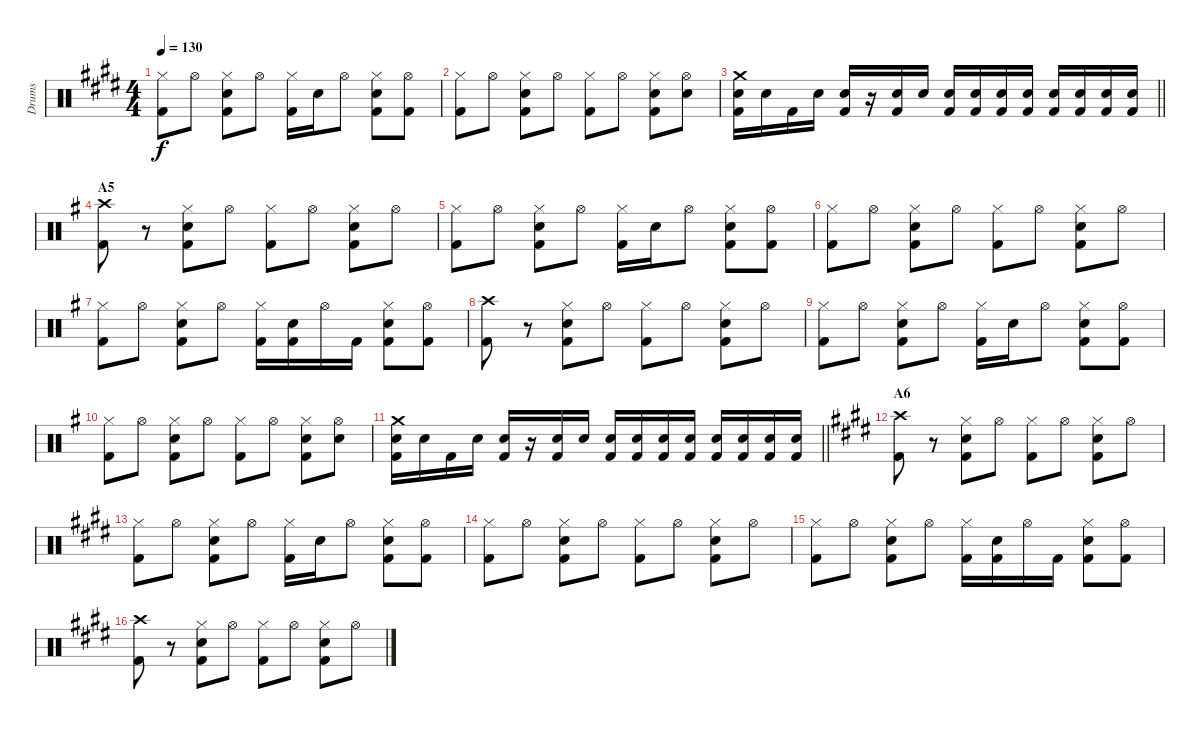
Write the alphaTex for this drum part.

\track ("Drums" "Drums") {instrument percussion}
\staff {score}
\articulation defaults
\ts (4 4)
\tempo 130
\clef neutral
\ks e
("Hi-Hat (closed)" "Kick (hit) 2").8{dy f} "Hi-Hat (open)".8 ("Hi-Hat (closed)" "Electric Snare (hit)" "Kick (hit) 2").8 "Hi-Hat (open)".8 ("Hi-Hat (closed)" "Kick (hit) 2").16 "Electric Snare (hit)".16 "Hi-Hat (open)".8 ("Hi-Hat (closed)" "Electric Snare (hit)" "Kick (hit) 2").8 ("Hi-Hat (open)" "Kick (hit) 2").8 |
("Hi-Hat (closed)" "Kick (hit) 2").8 "Hi-Hat (open)".8 ("Hi-Hat (closed)" "Electric Snare (hit)" "Kick (hit) 2").8 "Hi-Hat (open)".8 ("Hi-Hat (closed)" "Kick (hit) 2").8 "Hi-Hat (open)".8 ("Hi-Hat (closed)" "Electric Snare (hit)" "Kick (hit) 2").8 ("Hi-Hat (open)" "Electric Snare (hit)").8 |
\barLineRight lightlight
("Crash medium (hit)" "Electric Snare (hit)" "Kick (hit) 2").16 "Electric Snare (hit)".16 "Kick (hit) 2".16 "Electric Snare (hit)".16 ("Electric Snare (hit)" "Kick (hit) 2").16 r.16 ("Electric Snare (hit)" "Kick (hit) 2").16 "Electric Snare (hit)".16 ("Electric Snare (hit)" "Kick (hit) 2").16 ("Electric Snare (hit)" "Kick (hit) 2").16 ("Electric Snare (hit)" "Kick (hit) 2").16 ("Electric Snare (hit)" "Kick (hit) 2").16 ("Electric Snare (hit)" "Kick (hit) 2").16 ("Electric Snare (hit)" "Kick (hit) 2").16 ("Electric Snare (hit)" "Kick (hit) 2").16 ("Electric Snare (hit)" "Kick (hit) 2").16 |
\section ("" "A5")
\ks g
("Crash high (hit)" "Kick (hit) 2").8 r.8 ("Hi-Hat (closed)" "Electric Snare (hit)" "Kick (hit) 2").8 "Hi-Hat (open)".8 ("Hi-Hat (closed)" "Kick (hit) 2").8 "Hi-Hat (open)".8 ("Hi-Hat (closed)" "Electric Snare (hit)" "Kick (hit) 2").8 "Hi-Hat (open)".8 |
("Hi-Hat (closed)" "Kick (hit) 2").8 "Hi-Hat (open)".8 ("Hi-Hat (closed)" "Electric Snare (hit)" "Kick (hit) 2").8 "Hi-Hat (open)".8 ("Hi-Hat (closed)" "Kick (hit) 2").16 "Electric Snare (hit)".16 "Hi-Hat (open)".8 ("Hi-Hat (closed)" "Electric Snare (hit)" "Kick (hit) 2").8 ("Hi-Hat (open)" "Kick (hit) 2").8 |
("Hi-Hat (closed)" "Kick (hit) 2").8 "Hi-Hat (open)".8 ("Hi-Hat (closed)" "Electric Snare (hit)" "Kick (hit) 2").8 "Hi-Hat (open)".8 ("Hi-Hat (closed)" "Kick (hit) 2").8 "Hi-Hat (open)".8 ("Hi-Hat (closed)" "Electric Snare (hit)" "Kick (hit) 2").8 "Hi-Hat (open)".8 |
("Hi-Hat (closed)" "Kick (hit) 2").8 "Hi-Hat (open)".8 ("Hi-Hat (closed)" "Electric Snare (hit)" "Kick (hit) 2").8 "Hi-Hat (open)".8 ("Hi-Hat (closed)" "Kick (hit) 2").16 ("Electric Snare (hit)" "Kick (hit) 2").16 "Hi-Hat (open)".16 "Kick (hit) 2".16 ("Hi-Hat (closed)" "Electric Snare (hit)" "Kick (hit) 2").8 ("Hi-Hat (open)" "Kick (hit) 2").8 |
("Crash high (hit)" "Kick (hit) 2").8 r.8 ("Hi-Hat (closed)" "Electric Snare (hit)" "Kick (hit) 2").8 "Hi-Hat (open)".8 ("Hi-Hat (closed)" "Kick (hit) 2").8 "Hi-Hat (open)".8 ("Hi-Hat (closed)" "Electric Snare (hit)" "Kick (hit) 2").8 "Hi-Hat (open)".8 |
("Hi-Hat (closed)" "Kick (hit) 2").8 "Hi-Hat (open)".8 ("Hi-Hat (closed)" "Electric Snare (hit)" "Kick (hit) 2").8 "Hi-Hat (open)".8 ("Hi-Hat (closed)" "Kick (hit) 2").16 "Electric Snare (hit)".16 "Hi-Hat (open)".8 ("Hi-Hat (closed)" "Electric Snare (hit)" "Kick (hit) 2").8 ("Hi-Hat (open)" "Kick (hit) 2").8 |
("Hi-Hat (closed)" "Kick (hit) 2").8 "Hi-Hat (open)".8 ("Hi-Hat (closed)" "Electric Snare (hit)" "Kick (hit) 2").8 "Hi-Hat (open)".8 ("Hi-Hat (closed)" "Kick (hit) 2").8 "Hi-Hat (open)".8 ("Hi-Hat (closed)" "Electric Snare (hit)" "Kick (hit) 2").8 ("Hi-Hat (open)" "Electric Snare (hit)").8 |
\barLineRight lightlight
("Crash medium (hit)" "Electric Snare (hit)" "Kick (hit) 2").16 "Electric Snare (hit)".16 "Kick (hit) 2".16 "Electric Snare (hit)".16 ("Electric Snare (hit)" "Kick (hit) 2").16 r.16 ("Electric Snare (hit)" "Kick (hit) 2").16 "Electric Snare (hit)".16 ("Electric Snare (hit)" "Kick (hit) 2").16 ("Electric Snare (hit)" "Kick (hit) 2").16 ("Electric Snare (hit)" "Kick (hit) 2").16 ("Electric Snare (hit)" "Kick (hit) 2").16 ("Electric Snare (hit)" "Kick (hit) 2").16 ("Electric Snare (hit)" "Kick (hit) 2").16 ("Electric Snare (hit)" "Kick (hit) 2").16 ("Electric Snare (hit)" "Kick (hit) 2").16 |
\section ("" "A6")
\ks e
("Crash high (hit)" "Kick (hit) 2").8 r.8 ("Hi-Hat (closed)" "Electric Snare (hit)" "Kick (hit) 2").8 "Hi-Hat (open)".8 ("Hi-Hat (closed)" "Kick (hit) 2").8 "Hi-Hat (open)".8 ("Hi-Hat (closed)" "Electric Snare (hit)" "Kick (hit) 2").8 "Hi-Hat (open)".8 |
("Hi-Hat (closed)" "Kick (hit) 2").8 "Hi-Hat (open)".8 ("Hi-Hat (closed)" "Electric Snare (hit)" "Kick (hit) 2").8 "Hi-Hat (open)".8 ("Hi-Hat (closed)" "Kick (hit) 2").16 "Electric Snare (hit)".16 "Hi-Hat (open)".8 ("Hi-Hat (closed)" "Electric Snare (hit)" "Kick (hit) 2").8 ("Hi-Hat (open)" "Kick (hit) 2").8 |
("Hi-Hat (closed)" "Kick (hit) 2").8 "Hi-Hat (open)".8 ("Hi-Hat (closed)" "Electric Snare (hit)" "Kick (hit) 2").8 "Hi-Hat (open)".8 ("Hi-Hat (closed)" "Kick (hit) 2").8 "Hi-Hat (open)".8 ("Hi-Hat (closed)" "Electric Snare (hit)" "Kick (hit) 2").8 "Hi-Hat (open)".8 |
("Hi-Hat (closed)" "Kick (hit) 2").8 "Hi-Hat (open)".8 ("Hi-Hat (closed)" "Electric Snare (hit)" "Kick (hit) 2").8 "Hi-Hat (open)".8 ("Hi-Hat (closed)" "Kick (hit) 2").16 ("Electric Snare (hit)" "Kick (hit) 2").16 "Hi-Hat (open)".16 "Kick (hit) 2".16 ("Hi-Hat (closed)" "Electric Snare (hit)" "Kick (hit) 2").8 ("Hi-Hat (open)" "Kick (hit) 2").8 |
("Crash high (hit)" "Kick (hit) 2").8 r.8 ("Hi-Hat (closed)" "Electric Snare (hit)" "Kick (hit) 2").8 "Hi-Hat (open)".8 ("Hi-Hat (closed)" "Kick (hit) 2").8 "Hi-Hat (open)".8 ("Hi-Hat (closed)" "Electric Snare (hit)" "Kick (hit) 2").8 "Hi-Hat (open)".8
